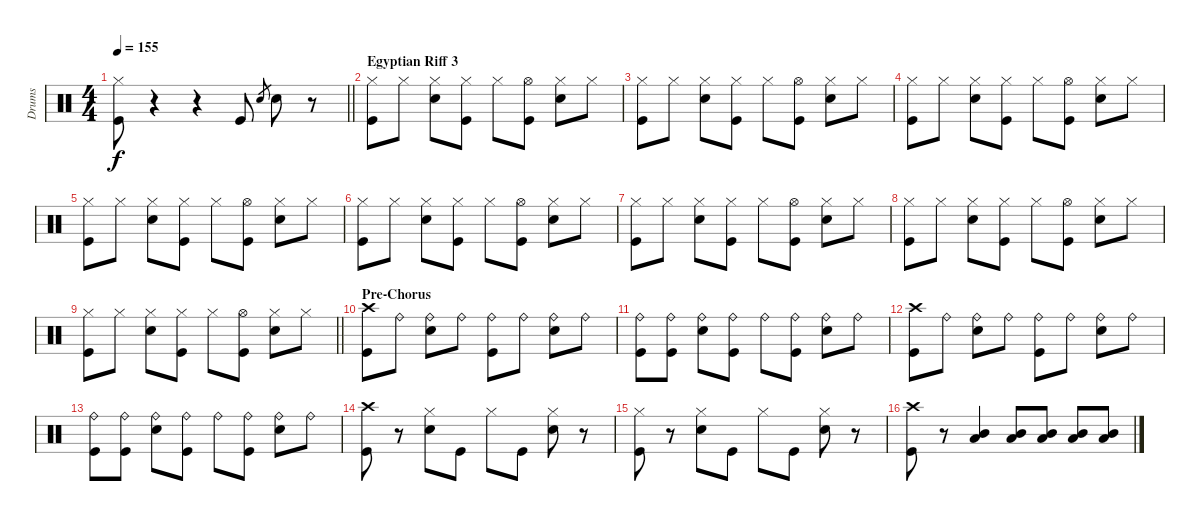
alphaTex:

\track ("Drums" "Drums") {instrument percussion}
\staff {score}
\articulation defaults
\ts (4 4)
\tempo 155
\clef neutral
\barLineRight lightlight
\ks c
("Hi-Hat (closed)" "Kick (hit)").8{dy f} r.4 r.4 "Kick (hit)".8 "Snare (hit) 2".8{gr} "Snare (hit) 2".8 r.8 |
\section ("" "Egyptian Riff 3")
("Hi-Hat (closed)" "Kick (hit)").8 "Hi-Hat (closed)".8 ("Hi-Hat (closed)" "Snare (hit) 2").8 ("Hi-Hat (closed)" "Kick (hit)").8 "Hi-Hat (closed)".8 ("Hi-Hat (open)" "Kick (hit)").8 ("Hi-Hat (closed)" "Snare (hit) 2").8 "Hi-Hat (closed)".8 |
("Hi-Hat (closed)" "Kick (hit)").8 "Hi-Hat (closed)".8 ("Hi-Hat (closed)" "Snare (hit) 2").8 ("Hi-Hat (closed)" "Kick (hit)").8 "Hi-Hat (closed)".8 ("Hi-Hat (open)" "Kick (hit)").8 ("Hi-Hat (closed)" "Snare (hit) 2").8 "Hi-Hat (closed)".8 |
("Hi-Hat (closed)" "Kick (hit)").8 "Hi-Hat (closed)".8 ("Hi-Hat (closed)" "Snare (hit) 2").8 ("Hi-Hat (closed)" "Kick (hit)").8 "Hi-Hat (closed)".8 ("Hi-Hat (open)" "Kick (hit)").8 ("Hi-Hat (closed)" "Snare (hit) 2").8 "Hi-Hat (closed)".8 |
("Hi-Hat (closed)" "Kick (hit)").8 "Hi-Hat (closed)".8 ("Hi-Hat (closed)" "Snare (hit) 2").8 ("Hi-Hat (closed)" "Kick (hit)").8 "Hi-Hat (closed)".8 ("Hi-Hat (open)" "Kick (hit)").8 ("Hi-Hat (closed)" "Snare (hit) 2").8 "Hi-Hat (closed)".8 |
("Hi-Hat (closed)" "Kick (hit)").8 "Hi-Hat (closed)".8 ("Hi-Hat (closed)" "Snare (hit) 2").8 ("Hi-Hat (closed)" "Kick (hit)").8 "Hi-Hat (closed)".8 ("Hi-Hat (open)" "Kick (hit)").8 ("Hi-Hat (closed)" "Snare (hit) 2").8 "Hi-Hat (closed)".8 |
("Hi-Hat (closed)" "Kick (hit)").8 "Hi-Hat (closed)".8 ("Hi-Hat (closed)" "Snare (hit) 2").8 ("Hi-Hat (closed)" "Kick (hit)").8 "Hi-Hat (closed)".8 ("Hi-Hat (open)" "Kick (hit)").8 ("Hi-Hat (closed)" "Snare (hit) 2").8 "Hi-Hat (closed)".8 |
("Hi-Hat (closed)" "Kick (hit)").8 "Hi-Hat (closed)".8 ("Hi-Hat (closed)" "Snare (hit) 2").8 ("Hi-Hat (closed)" "Kick (hit)").8 "Hi-Hat (closed)".8 ("Hi-Hat (open)" "Kick (hit)").8 ("Hi-Hat (closed)" "Snare (hit) 2").8 "Hi-Hat (closed)".8 |
\barLineRight lightlight
("Hi-Hat (closed)" "Kick (hit)").8 "Hi-Hat (closed)".8 ("Hi-Hat (closed)" "Snare (hit) 2").8 ("Hi-Hat (closed)" "Kick (hit)").8 "Hi-Hat (closed)".8 ("Hi-Hat (open)" "Kick (hit)").8 ("Hi-Hat (closed)" "Snare (hit) 2").8 "Hi-Hat (closed)".8 |
\section ("" "Pre-Chorus")
("Crash high (hit)" "Kick (hit)").8 "Ride (bell)".8 ("Ride (bell)" "Snare (hit) 2").8 "Ride (bell)".8 ("Ride (bell)" "Kick (hit)").8 "Ride (bell)".8 ("Ride (bell)" "Snare (hit) 2").8 "Ride (bell)".8 |
("Ride (bell)" "Kick (hit)").8 ("Ride (bell)" "Kick (hit)").8 ("Ride (bell)" "Snare (hit) 2").8 ("Ride (bell)" "Kick (hit)").8 "Ride (bell)".8 ("Ride (bell)" "Kick (hit)").8 ("Ride (bell)" "Snare (hit) 2").8 "Ride (bell)".8 |
("Crash high (hit)" "Kick (hit)").8 "Ride (bell)".8 ("Ride (bell)" "Snare (hit) 2").8 "Ride (bell)".8 ("Ride (bell)" "Kick (hit)").8 "Ride (bell)".8 ("Ride (bell)" "Snare (hit) 2").8 "Ride (bell)".8 |
("Ride (bell)" "Kick (hit)").8 ("Ride (bell)" "Kick (hit)").8 ("Ride (bell)" "Snare (hit) 2").8 ("Ride (bell)" "Kick (hit)").8 "Ride (bell)".8 ("Ride (bell)" "Kick (hit)").8 ("Ride (bell)" "Snare (hit) 2").8 "Ride (bell)".8 |
("Crash high (hit)" "Kick (hit)").8 r.8 ("Hi-Hat (closed)" "Snare (hit) 2").8 "Kick (hit)".8 "Hi-Hat (closed)".8 "Kick (hit)".8 ("Hi-Hat (closed)" "Snare (hit) 2").8 r.8 |
("Hi-Hat (closed)" "Kick (hit)").8 r.8 ("Hi-Hat (closed)" "Snare (hit) 2").8 "Kick (hit)".8 "Hi-Hat (closed)".8 "Kick (hit)".8 ("Hi-Hat (closed)" "Snare (hit) 2").8 r.8 |
("Crash high (hit)" "Kick (hit)").8 r.8 ("Mid Tom (hit)" "Low Floor Tom (hit)").4 ("Mid Tom (hit)" "Low Floor Tom (hit)").8 ("Mid Tom (hit)" "Low Floor Tom (hit)").8 ("Mid Tom (hit)" "Low Floor Tom (hit)").8 ("Mid Tom (hit)" "Low Floor Tom (hit)").8
